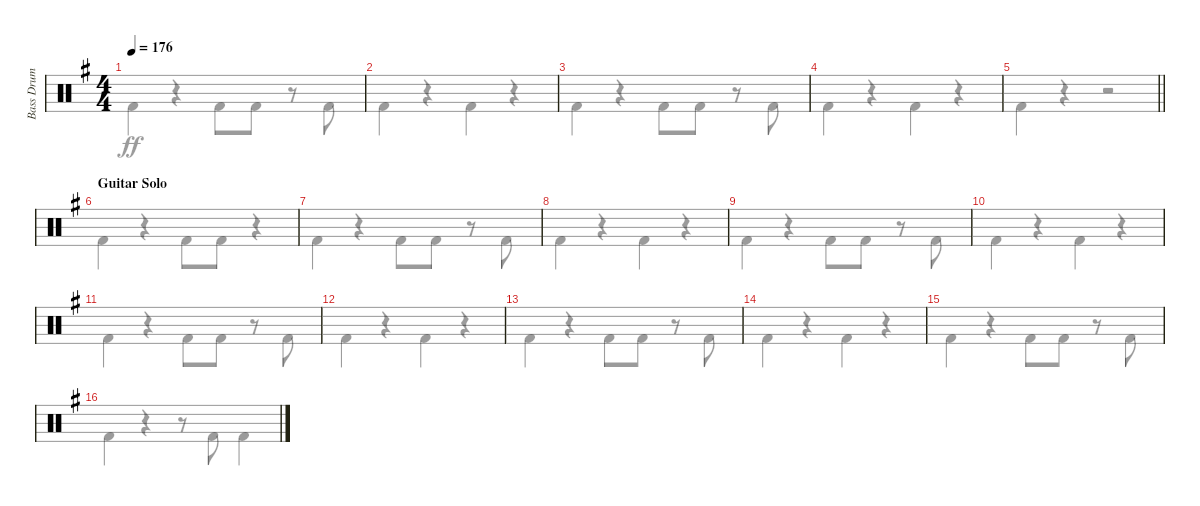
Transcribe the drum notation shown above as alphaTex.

\track ("Bass Drum" "Bass Drum") {instrument percussion}
\staff {score}
\articulation defaults
\voice
\ts (4 4)
\tempo 176
\clef neutral
\ks eminor
|
|
|
|
\barLineRight lightlight
|
\section ("" "Guitar Solo")
|
|
|
|
|
|
|
|
|
|
\voice
\clef neutral
\ks eminor "Kick (hit) 2".4{dy ff}
r.4 "Kick (hit) 2".8 "Kick (hit) 2".8 r.8 "Kick (hit) 2".8 |
"Kick (hit) 2".4 r.4 "Kick (hit) 2".4 r.4 |
"Kick (hit) 2".4 r.4 "Kick (hit) 2".8 "Kick (hit) 2".8 r.8 "Kick (hit) 2".8 |
"Kick (hit) 2".4 r.4 "Kick (hit) 2".4 r.4 |
\barLineRight lightlight "Kick (hit) 2".4
r.4 r.2 |
"Kick (hit) 2".4 r.4 "Kick (hit) 2".8 "Kick (hit) 2".8 r.4 |
"Kick (hit) 2".4 r.4 "Kick (hit) 2".8 "Kick (hit) 2".8 r.8 "Kick (hit) 2".8 |
"Kick (hit) 2".4 r.4 "Kick (hit) 2".4 r.4 |
"Kick (hit) 2".4 r.4 "Kick (hit) 2".8 "Kick (hit) 2".8 r.8 "Kick (hit) 2".8 |
"Kick (hit) 2".4 r.4 "Kick (hit) 2".4 r.4 |
"Kick (hit) 2".4 r.4 "Kick (hit) 2".8 "Kick (hit) 2".8 r.8 "Kick (hit) 2".8 |
"Kick (hit) 2".4 r.4 "Kick (hit) 2".4 r.4 |
"Kick (hit) 2".4 r.4 "Kick (hit) 2".8 "Kick (hit) 2".8 r.8 "Kick (hit) 2".8 |
"Kick (hit) 2".4 r.4 "Kick (hit) 2".4 r.4 |
"Kick (hit) 2".4 r.4 "Kick (hit) 2".8 "Kick (hit) 2".8 r.8 "Kick (hit) 2".8 |
"Kick (hit) 2".4 r.4 r.8 "Kick (hit) 2".8 "Kick (hit) 2".4
